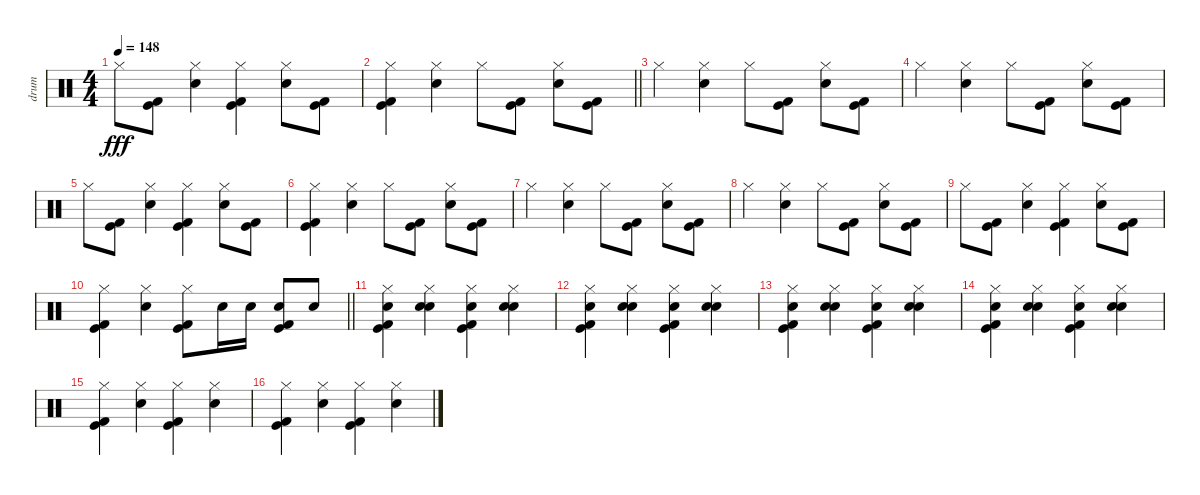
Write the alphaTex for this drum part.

\track ("drum" "drum") {instrument percussion}
\staff {score}
\articulation defaults
\ts (4 4)
\tempo 148
\clef neutral
\ks c "Hi-Hat (closed)".8{dy fff}
("Kick (hit)" "Kick (hit) 2").8 ("Snare (hit) 2" "Hi-Hat (closed)").4 ("Hi-Hat (closed)" "Kick (hit)" "Kick (hit) 2").4 ("Snare (hit) 2" "Hi-Hat (closed)").8 ("Kick (hit)" "Kick (hit) 2").8 |
\barLineRight lightlight
("Hi-Hat (closed)" "Kick (hit)" "Kick (hit) 2").4 ("Snare (hit) 2" "Hi-Hat (closed)").4 "Hi-Hat (closed)".8 ("Kick (hit)" "Kick (hit) 2").8 ("Snare (hit) 2" "Hi-Hat (closed)").8 ("Kick (hit)" "Kick (hit) 2").8 |
"Hi-Hat (closed)".4 ("Snare (hit) 2" "Hi-Hat (closed)").4 "Hi-Hat (closed)".8 ("Kick (hit)" "Kick (hit) 2").8 ("Snare (hit) 2" "Hi-Hat (closed)").8 ("Kick (hit)" "Kick (hit) 2").8 |
"Hi-Hat (closed)".4 ("Snare (hit) 2" "Hi-Hat (closed)").4 "Hi-Hat (closed)".8 ("Kick (hit)" "Kick (hit) 2").8 ("Snare (hit) 2" "Hi-Hat (closed)").8 ("Kick (hit)" "Kick (hit) 2").8 |
"Hi-Hat (closed)".8 ("Kick (hit)" "Kick (hit) 2").8 ("Snare (hit) 2" "Hi-Hat (closed)").4 ("Hi-Hat (closed)" "Kick (hit)" "Kick (hit) 2").4 ("Snare (hit) 2" "Hi-Hat (closed)").8 ("Kick (hit)" "Kick (hit) 2").8 |
("Hi-Hat (closed)" "Kick (hit)" "Kick (hit) 2").4 ("Snare (hit) 2" "Hi-Hat (closed)").4 "Hi-Hat (closed)".8 ("Kick (hit)" "Kick (hit) 2").8 ("Snare (hit) 2" "Hi-Hat (closed)").8 ("Kick (hit)" "Kick (hit) 2").8 |
"Hi-Hat (closed)".4 ("Snare (hit) 2" "Hi-Hat (closed)").4 "Hi-Hat (closed)".8 ("Kick (hit)" "Kick (hit) 2").8 ("Snare (hit) 2" "Hi-Hat (closed)").8 ("Kick (hit)" "Kick (hit) 2").8 |
"Hi-Hat (closed)".4 ("Snare (hit) 2" "Hi-Hat (closed)").4 "Hi-Hat (closed)".8 ("Kick (hit)" "Kick (hit) 2").8 ("Snare (hit) 2" "Hi-Hat (closed)").8 ("Kick (hit)" "Kick (hit) 2").8 |
"Hi-Hat (closed)".8 ("Kick (hit)" "Kick (hit) 2").8 ("Snare (hit) 2" "Hi-Hat (closed)").4 ("Hi-Hat (closed)" "Kick (hit)" "Kick (hit) 2").4 ("Snare (hit) 2" "Hi-Hat (closed)").8 ("Kick (hit)" "Kick (hit) 2").8 |
\barLineRight lightlight
("Hi-Hat (closed)" "Kick (hit)" "Kick (hit) 2").4 ("Snare (hit) 2" "Hi-Hat (closed)").4 ("Hi-Hat (closed)" "Kick (hit)" "Kick (hit) 2").8 "Snare (hit) 2".16 "Snare (hit) 2".16 ("Snare (hit) 2" "Kick (hit)" "Kick (hit) 2").8 "Snare (hit) 2".8 |
\section ("" "")
("Hand Clap (hit)" "Hi-Hat (closed)" "Kick (hit)" "Kick (hit) 2").4 ("Hand Clap (hit)" "Snare (hit) 2" "Hi-Hat (closed)").4 ("Hand Clap (hit)" "Hi-Hat (closed)" "Kick (hit)" "Kick (hit) 2").4 ("Hand Clap (hit)" "Snare (hit) 2" "Hi-Hat (closed)").4 |
("Hand Clap (hit)" "Hi-Hat (closed)" "Kick (hit)" "Kick (hit) 2").4 ("Hand Clap (hit)" "Snare (hit) 2" "Hi-Hat (closed)").4 ("Hand Clap (hit)" "Hi-Hat (closed)" "Kick (hit)" "Kick (hit) 2").4 ("Hand Clap (hit)" "Snare (hit) 2" "Hi-Hat (closed)").4 |
("Hand Clap (hit)" "Hi-Hat (closed)" "Kick (hit)" "Kick (hit) 2").4 ("Hand Clap (hit)" "Snare (hit) 2" "Hi-Hat (closed)").4 ("Hand Clap (hit)" "Hi-Hat (closed)" "Kick (hit)" "Kick (hit) 2").4 ("Hand Clap (hit)" "Snare (hit) 2" "Hi-Hat (closed)").4 |
("Hand Clap (hit)" "Hi-Hat (closed)" "Kick (hit)" "Kick (hit) 2").4 ("Hand Clap (hit)" "Snare (hit) 2" "Hi-Hat (closed)").4 ("Hand Clap (hit)" "Hi-Hat (closed)" "Kick (hit)" "Kick (hit) 2").4 ("Hand Clap (hit)" "Snare (hit) 2" "Hi-Hat (closed)").4 |
("Hi-Hat (closed)" "Kick (hit)" "Kick (hit) 2").4 ("Snare (hit) 2" "Hi-Hat (closed)").4 ("Hi-Hat (closed)" "Kick (hit)" "Kick (hit) 2").4 ("Snare (hit) 2" "Hi-Hat (closed)").4 |
("Hi-Hat (closed)" "Kick (hit)" "Kick (hit) 2").4 ("Snare (hit) 2" "Hi-Hat (closed)").4 ("Hi-Hat (closed)" "Kick (hit)" "Kick (hit) 2").4 ("Snare (hit) 2" "Hi-Hat (closed)").4
